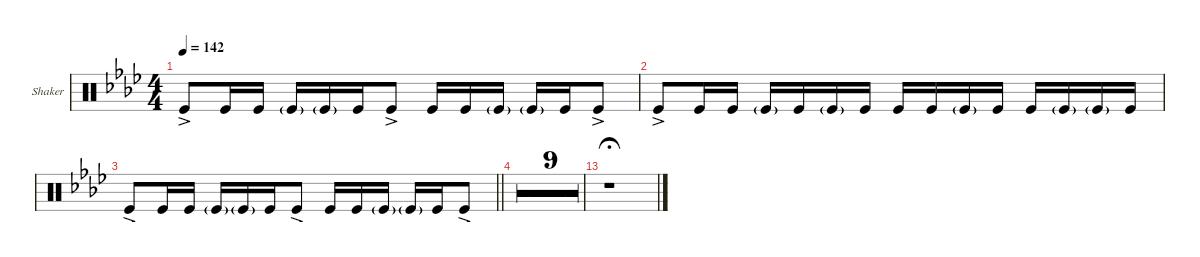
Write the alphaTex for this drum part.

\defaultSystemsLayout 4
\hideDynamics
\bracketExtendMode groupsimilarinstruments
\firstSystemTrackNameOrientation horizontal
\otherSystemsTrackNameOrientation horizontal
\track ("Shaker" "Shaker") {multiBarRest instrument percussion}
\staff {score}
\articulation defaults
\ts (4 4)
\tempo 142
\clef neutral
\ks ab "Kick (hit)"{ac}.8{dy ff} "Kick (hit)".16 "Kick (hit)".16 "Kick (hit)"{g}.16 "Kick (hit)"{g}.16 "Kick (hit)".16 "Kick (hit)"{ac}.8 "Kick (hit)".16 "Kick (hit)".16 "Kick (hit)"{g}.16 "Kick (hit)"{g}.16 "Kick (hit)".16 "Kick (hit)"{ac}.8
|
"Kick (hit)"{ac}.8 "Kick (hit)".16 "Kick (hit)".16 "Kick (hit)"{g}.16 "Kick (hit)".16 "Kick (hit)"{g}.16 "Kick (hit)".16 "Kick (hit)".16 "Kick (hit)".16 "Kick (hit)"{g}.16 "Kick (hit)".16 "Kick (hit)".16 "Kick (hit)"{g}.16 "Kick (hit)"{g}.16 "Kick (hit)".16 |
\barLineRight lightlight "Kick (hit)"{ac}.8 "Kick (hit)".16 "Kick (hit)".16 "Kick (hit)"{g}.16 "Kick (hit)"{g}.16 "Kick (hit)".16 "Kick (hit)"{ac}.8 "Kick (hit)".16 "Kick (hit)".16 "Kick (hit)"{g}.16 "Kick (hit)"{g}.16 "Kick (hit)".16 "Kick (hit)"{ac}.8
|
r.1 |
r.1 |
r.1 |
r.1 |
r.1 |
r.1 |
r.1 |
r.1 |
r.1 |
r.1{fermata (medium 0.5)}
